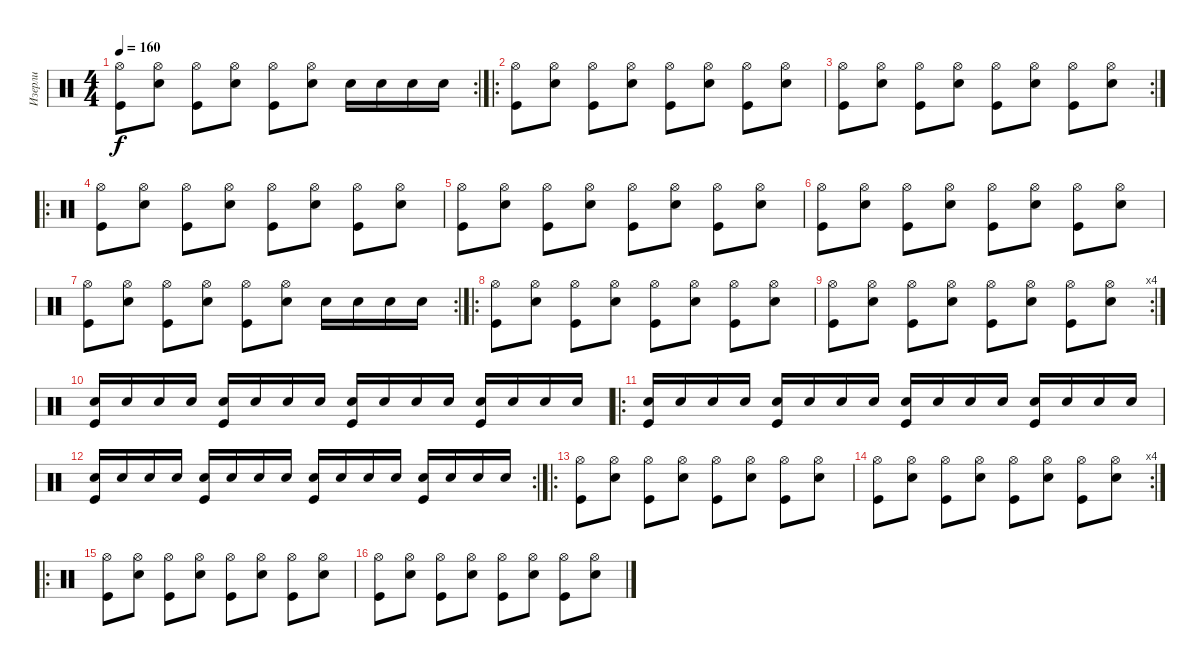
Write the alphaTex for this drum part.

\track ("Изерли" "Изерли") {instrument percussion}
\staff {score}
\articulation defaults
\rc 2
\ts (4 4)
\tempo 160
\clef neutral
\ks c
("Hi-Hat (open)" "Kick (hit)").8{dy f} ("Hi-Hat (open)" "Snare (hit) 2").8 ("Hi-Hat (open)" "Kick (hit)").8 ("Hi-Hat (open)" "Snare (hit) 2").8 ("Hi-Hat (open)" "Kick (hit)").8 ("Hi-Hat (open)" "Snare (hit) 2").8 "Snare (hit) 2".16 "Snare (hit) 2".16 "Snare (hit) 2".16 "Snare (hit) 2".16 |
\ro
("Hi-Hat (open)" "Kick (hit)").8 ("Hi-Hat (open)" "Snare (hit) 2").8 ("Hi-Hat (open)" "Kick (hit)").8 ("Hi-Hat (open)" "Snare (hit) 2").8 ("Hi-Hat (open)" "Kick (hit)").8 ("Hi-Hat (open)" "Snare (hit) 2").8 ("Hi-Hat (open)" "Kick (hit)").8 ("Hi-Hat (open)" "Snare (hit) 2").8 |
\rc 2
("Hi-Hat (open)" "Kick (hit)").8 ("Hi-Hat (open)" "Snare (hit) 2").8 ("Hi-Hat (open)" "Kick (hit)").8 ("Hi-Hat (open)" "Snare (hit) 2").8 ("Hi-Hat (open)" "Kick (hit)").8 ("Hi-Hat (open)" "Snare (hit) 2").8 ("Hi-Hat (open)" "Kick (hit)").8 ("Hi-Hat (open)" "Snare (hit) 2").8 |
\ro
("Hi-Hat (open)" "Kick (hit)").8 ("Hi-Hat (open)" "Snare (hit) 2").8 ("Hi-Hat (open)" "Kick (hit)").8 ("Hi-Hat (open)" "Snare (hit) 2").8 ("Hi-Hat (open)" "Kick (hit)").8 ("Hi-Hat (open)" "Snare (hit) 2").8 ("Hi-Hat (open)" "Kick (hit)").8 ("Hi-Hat (open)" "Snare (hit) 2").8 |
("Hi-Hat (open)" "Kick (hit)").8 ("Hi-Hat (open)" "Snare (hit) 2").8 ("Hi-Hat (open)" "Kick (hit)").8 ("Hi-Hat (open)" "Snare (hit) 2").8 ("Hi-Hat (open)" "Kick (hit)").8 ("Hi-Hat (open)" "Snare (hit) 2").8 ("Hi-Hat (open)" "Kick (hit)").8 ("Hi-Hat (open)" "Snare (hit) 2").8 |
("Hi-Hat (open)" "Kick (hit)").8 ("Hi-Hat (open)" "Snare (hit) 2").8 ("Hi-Hat (open)" "Kick (hit)").8 ("Hi-Hat (open)" "Snare (hit) 2").8 ("Hi-Hat (open)" "Kick (hit)").8 ("Hi-Hat (open)" "Snare (hit) 2").8 ("Hi-Hat (open)" "Kick (hit)").8 ("Hi-Hat (open)" "Snare (hit) 2").8 |
\rc 2
("Hi-Hat (open)" "Kick (hit)").8 ("Hi-Hat (open)" "Snare (hit) 2").8 ("Hi-Hat (open)" "Kick (hit)").8 ("Hi-Hat (open)" "Snare (hit) 2").8 ("Hi-Hat (open)" "Kick (hit)").8 ("Hi-Hat (open)" "Snare (hit) 2").8 "Snare (hit) 2".16 "Snare (hit) 2".16 "Snare (hit) 2".16 "Snare (hit) 2".16 |
\ro
("Hi-Hat (open)" "Kick (hit)").8 ("Hi-Hat (open)" "Snare (hit) 2").8 ("Hi-Hat (open)" "Kick (hit)").8 ("Hi-Hat (open)" "Snare (hit) 2").8 ("Hi-Hat (open)" "Kick (hit)").8 ("Hi-Hat (open)" "Snare (hit) 2").8 ("Hi-Hat (open)" "Kick (hit)").8 ("Hi-Hat (open)" "Snare (hit) 2").8 |
\rc 4
("Hi-Hat (open)" "Kick (hit)").8 ("Hi-Hat (open)" "Snare (hit) 2").8 ("Hi-Hat (open)" "Kick (hit)").8 ("Hi-Hat (open)" "Snare (hit) 2").8 ("Hi-Hat (open)" "Kick (hit)").8 ("Hi-Hat (open)" "Snare (hit) 2").8 ("Hi-Hat (open)" "Kick (hit)").8 ("Hi-Hat (open)" "Snare (hit) 2").8 |
("Snare (hit) 2" "Kick (hit)").16 "Snare (hit) 2".16 "Snare (hit) 2".16 "Snare (hit) 2".16 ("Snare (hit) 2" "Kick (hit)").16 "Snare (hit) 2".16 "Snare (hit) 2".16 "Snare (hit) 2".16 ("Snare (hit) 2" "Kick (hit)").16 "Snare (hit) 2".16 "Snare (hit) 2".16 "Snare (hit) 2".16 ("Snare (hit) 2" "Kick (hit)").16 "Snare (hit) 2".16 "Snare (hit) 2".16 "Snare (hit) 2".16 |
\ro
("Snare (hit) 2" "Kick (hit)").16 "Snare (hit) 2".16 "Snare (hit) 2".16 "Snare (hit) 2".16 ("Snare (hit) 2" "Kick (hit)").16 "Snare (hit) 2".16 "Snare (hit) 2".16 "Snare (hit) 2".16 ("Snare (hit) 2" "Kick (hit)").16 "Snare (hit) 2".16 "Snare (hit) 2".16 "Snare (hit) 2".16 ("Snare (hit) 2" "Kick (hit)").16 "Snare (hit) 2".16 "Snare (hit) 2".16 "Snare (hit) 2".16 |
\rc 2
("Snare (hit) 2" "Kick (hit)").16 "Snare (hit) 2".16 "Snare (hit) 2".16 "Snare (hit) 2".16 ("Snare (hit) 2" "Kick (hit)").16 "Snare (hit) 2".16 "Snare (hit) 2".16 "Snare (hit) 2".16 ("Snare (hit) 2" "Kick (hit)").16 "Snare (hit) 2".16 "Snare (hit) 2".16 "Snare (hit) 2".16 ("Snare (hit) 2" "Kick (hit)").16 "Snare (hit) 2".16 "Snare (hit) 2".16 "Snare (hit) 2".16 |
\ro
("Hi-Hat (open)" "Kick (hit)").8 ("Hi-Hat (open)" "Snare (hit) 2").8 ("Hi-Hat (open)" "Kick (hit)").8 ("Hi-Hat (open)" "Snare (hit) 2").8 ("Hi-Hat (open)" "Kick (hit)").8 ("Hi-Hat (open)" "Snare (hit) 2").8 ("Hi-Hat (open)" "Kick (hit)").8 ("Hi-Hat (open)" "Snare (hit) 2").8 |
\rc 4
("Hi-Hat (open)" "Kick (hit)").8 ("Hi-Hat (open)" "Snare (hit) 2").8 ("Hi-Hat (open)" "Kick (hit)").8 ("Hi-Hat (open)" "Snare (hit) 2").8 ("Hi-Hat (open)" "Kick (hit)").8 ("Hi-Hat (open)" "Snare (hit) 2").8 ("Hi-Hat (open)" "Kick (hit)").8 ("Hi-Hat (open)" "Snare (hit) 2").8 |
\ro
("Hi-Hat (open)" "Kick (hit)").8 ("Hi-Hat (open)" "Snare (hit) 2").8 ("Hi-Hat (open)" "Kick (hit)").8 ("Hi-Hat (open)" "Snare (hit) 2").8 ("Hi-Hat (open)" "Kick (hit)").8 ("Hi-Hat (open)" "Snare (hit) 2").8 ("Hi-Hat (open)" "Kick (hit)").8 ("Hi-Hat (open)" "Snare (hit) 2").8 |
("Hi-Hat (open)" "Kick (hit)").8 ("Hi-Hat (open)" "Snare (hit) 2").8 ("Hi-Hat (open)" "Kick (hit)").8 ("Hi-Hat (open)" "Snare (hit) 2").8 ("Hi-Hat (open)" "Kick (hit)").8 ("Hi-Hat (open)" "Snare (hit) 2").8 ("Hi-Hat (open)" "Kick (hit)").8 ("Hi-Hat (open)" "Snare (hit) 2").8
